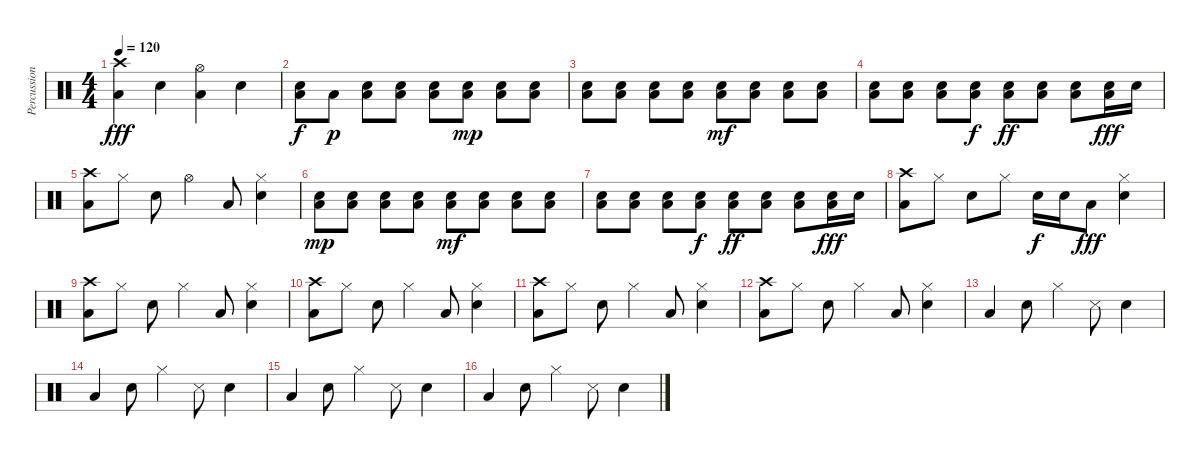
\track ("Percussion" "Percussion") {instrument percussion}
\staff {score}
\articulation defaults
\ts (4 4)
\tempo 120
\clef neutral
\ks c
("Crash high (hit)" "Low Tom (hit)").4{dy fff} "Electric Snare (hit)".4 ("Hi-Hat (open)" "Low Tom (hit)").4 "Electric Snare (hit)".4 |
("Electric Snare (hit)" "Low Tom (hit)").8{dy f} "Low Tom (hit)".8{dy p} ("Electric Snare (hit)" "Low Tom (hit)").8 ("Electric Snare (hit)" "Low Tom (hit)").8 ("Electric Snare (hit)" "Low Tom (hit)").8 ("Electric Snare (hit)" "Low Tom (hit)").8{dy mp} ("Electric Snare (hit)" "Low Tom (hit)").8 ("Electric Snare (hit)" "Low Tom (hit)").8 |
("Electric Snare (hit)" "Low Tom (hit)").8 ("Electric Snare (hit)" "Low Tom (hit)").8 ("Electric Snare (hit)" "Low Tom (hit)").8 ("Electric Snare (hit)" "Low Tom (hit)").8 ("Electric Snare (hit)" "Low Tom (hit)").8{dy mf} ("Electric Snare (hit)" "Low Tom (hit)").8 ("Electric Snare (hit)" "Low Tom (hit)").8 ("Electric Snare (hit)" "Low Tom (hit)").8 |
("Electric Snare (hit)" "Low Tom (hit)").8 ("Electric Snare (hit)" "Low Tom (hit)").8 ("Electric Snare (hit)" "Low Tom (hit)").8 ("Electric Snare (hit)" "Low Tom (hit)").8{dy f} ("Electric Snare (hit)" "Low Tom (hit)").8{dy ff} ("Electric Snare (hit)" "Low Tom (hit)").8 ("Electric Snare (hit)" "Low Tom (hit)").8 ("Electric Snare (hit)" "Low Tom (hit)").16{dy fff} "Electric Snare (hit)".16 |
("Crash high (hit)" "Low Tom (hit)").8 "Hi-Hat (closed)".8 "Electric Snare (hit)".8 "Hi-Hat (open)".4 "Low Tom (hit)".8 ("Electric Snare (hit)" "Hi-Hat (closed)").4 |
("Electric Snare (hit)" "Low Tom (hit)").8{dy mp} ("Electric Snare (hit)" "Low Tom (hit)").8 ("Electric Snare (hit)" "Low Tom (hit)").8 ("Electric Snare (hit)" "Low Tom (hit)").8 ("Electric Snare (hit)" "Low Tom (hit)").8{dy mf} ("Electric Snare (hit)" "Low Tom (hit)").8 ("Electric Snare (hit)" "Low Tom (hit)").8 ("Electric Snare (hit)" "Low Tom (hit)").8 |
("Electric Snare (hit)" "Low Tom (hit)").8 ("Electric Snare (hit)" "Low Tom (hit)").8 ("Electric Snare (hit)" "Low Tom (hit)").8 ("Electric Snare (hit)" "Low Tom (hit)").8{dy f} ("Electric Snare (hit)" "Low Tom (hit)").8{dy ff} ("Electric Snare (hit)" "Low Tom (hit)").8 ("Electric Snare (hit)" "Low Tom (hit)").8 ("Electric Snare (hit)" "Low Tom (hit)").16{dy fff} "Electric Snare (hit)".16 |
("Crash high (hit)" "Low Tom (hit)").8 "Hi-Hat (closed)".8 "Electric Snare (hit)".8 "Hi-Hat (closed)".8 "Electric Snare (hit)".16{dy f} "Electric Snare (hit)".16 "Low Tom (hit)".8{dy fff} ("Electric Snare (hit)" "Hi-Hat (closed)").4 |
("Crash high (hit)" "Low Tom (hit)").8 "Hi-Hat (closed)".8 "Electric Snare (hit)".8 "Hi-Hat (closed)".4 "Low Tom (hit)".8 ("Electric Snare (hit)" "Hi-Hat (closed)").4 |
("Crash high (hit)" "Low Tom (hit)").8 "Hi-Hat (closed)".8 "Electric Snare (hit)".8 "Hi-Hat (closed)".4 "Low Tom (hit)".8 ("Electric Snare (hit)" "Hi-Hat (closed)").4 |
("Crash high (hit)" "Low Tom (hit)").8 "Hi-Hat (closed)".8 "Electric Snare (hit)".8 "Hi-Hat (closed)".4 "Low Tom (hit)".8 ("Electric Snare (hit)" "Hi-Hat (closed)").4 |
("Crash high (hit)" "Low Tom (hit)").8 "Hi-Hat (closed)".8 "Electric Snare (hit)".8 "Hi-Hat (closed)".4 "Low Tom (hit)".8 ("Electric Snare (hit)" "Hi-Hat (closed)").4 |
"Low Tom (hit)".4 "Electric Snare (hit)".8 "Hi-Hat (closed)".4 "Snare (side stick) 3".8 "Electric Snare (hit)".4 |
"Low Tom (hit)".4 "Electric Snare (hit)".8 "Hi-Hat (closed)".4 "Snare (side stick) 3".8 "Electric Snare (hit)".4 |
"Low Tom (hit)".4 "Electric Snare (hit)".8 "Hi-Hat (closed)".4 "Snare (side stick) 3".8 "Electric Snare (hit)".4 |
"Low Tom (hit)".4 "Electric Snare (hit)".8 "Hi-Hat (closed)".4 "Snare (side stick) 3".8 "Electric Snare (hit)".4
